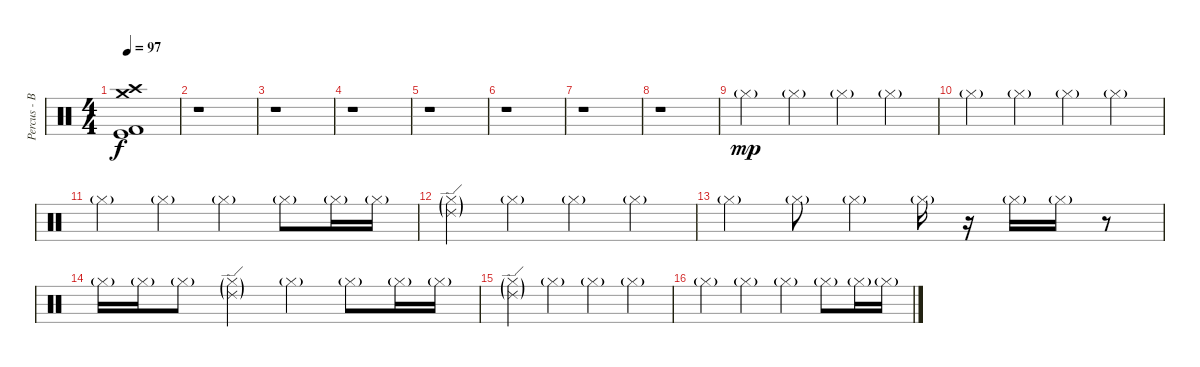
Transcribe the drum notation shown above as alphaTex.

\track ("Percus - Ben" "Percus - B") {instrument percussion}
\staff {score}
\articulation defaults
\ts (4 4)
\tempo 97
\clef neutral
\ks c
("Kick (hit)" "Crash high (hit)" "Crash medium (hit)" "Kick (hit) 2").1{dy f} |
r.1 |
r.1 |
r.1 |
r.1 |
r.1 |
r.1 |
r.1 |
"Hi-Hat (closed)"{g}.4{dy mp volume 9} "Hi-Hat (closed)"{g}.4 "Hi-Hat (closed)"{g}.4 "Hi-Hat (closed)"{g}.4 |
"Hi-Hat (closed)"{g}.4 "Hi-Hat (closed)"{g}.4 "Hi-Hat (closed)"{g}.4 "Hi-Hat (closed)"{g}.4 |
"Hi-Hat (closed)"{g}.4 "Hi-Hat (closed)"{g}.4 "Hi-Hat (closed)"{g}.4 "Hi-Hat (closed)"{g}.8 "Hi-Hat (closed)"{g}.16 "Hi-Hat (closed)"{g}.16 |
("Ride (edge) 2"{g} "Hi-Hat (closed)"{g}).4 "Hi-Hat (closed)"{g}.4 "Hi-Hat (closed)"{g}.4 "Hi-Hat (closed)"{g}.4 |
"Hi-Hat (closed)"{g}.4 "Hi-Hat (closed)"{g}.8 "Hi-Hat (closed)"{g}.4 "Hi-Hat (closed)"{g}.16 r.16 "Hi-Hat (closed)"{g}.16 "Hi-Hat (closed)"{g}.16 r.8 |
"Hi-Hat (closed)"{g}.16 "Hi-Hat (closed)"{g}.16 "Hi-Hat (closed)"{g}.8 ("Ride (edge) 2"{g} "Hi-Hat (closed)"{g}).4 "Hi-Hat (closed)"{g}.4 "Hi-Hat (closed)"{g}.8 "Hi-Hat (closed)"{g}.16 "Hi-Hat (closed)"{g}.16 |
("Ride (edge) 2"{g} "Hi-Hat (closed)"{g}).4 "Hi-Hat (closed)"{g}.4 "Hi-Hat (closed)"{g}.4 "Hi-Hat (closed)"{g}.4 |
"Hi-Hat (closed)"{g}.4 "Hi-Hat (closed)"{g}.4 "Hi-Hat (closed)"{g}.4 "Hi-Hat (closed)"{g}.8 "Hi-Hat (closed)"{g}.16 "Hi-Hat (closed)"{g}.16
